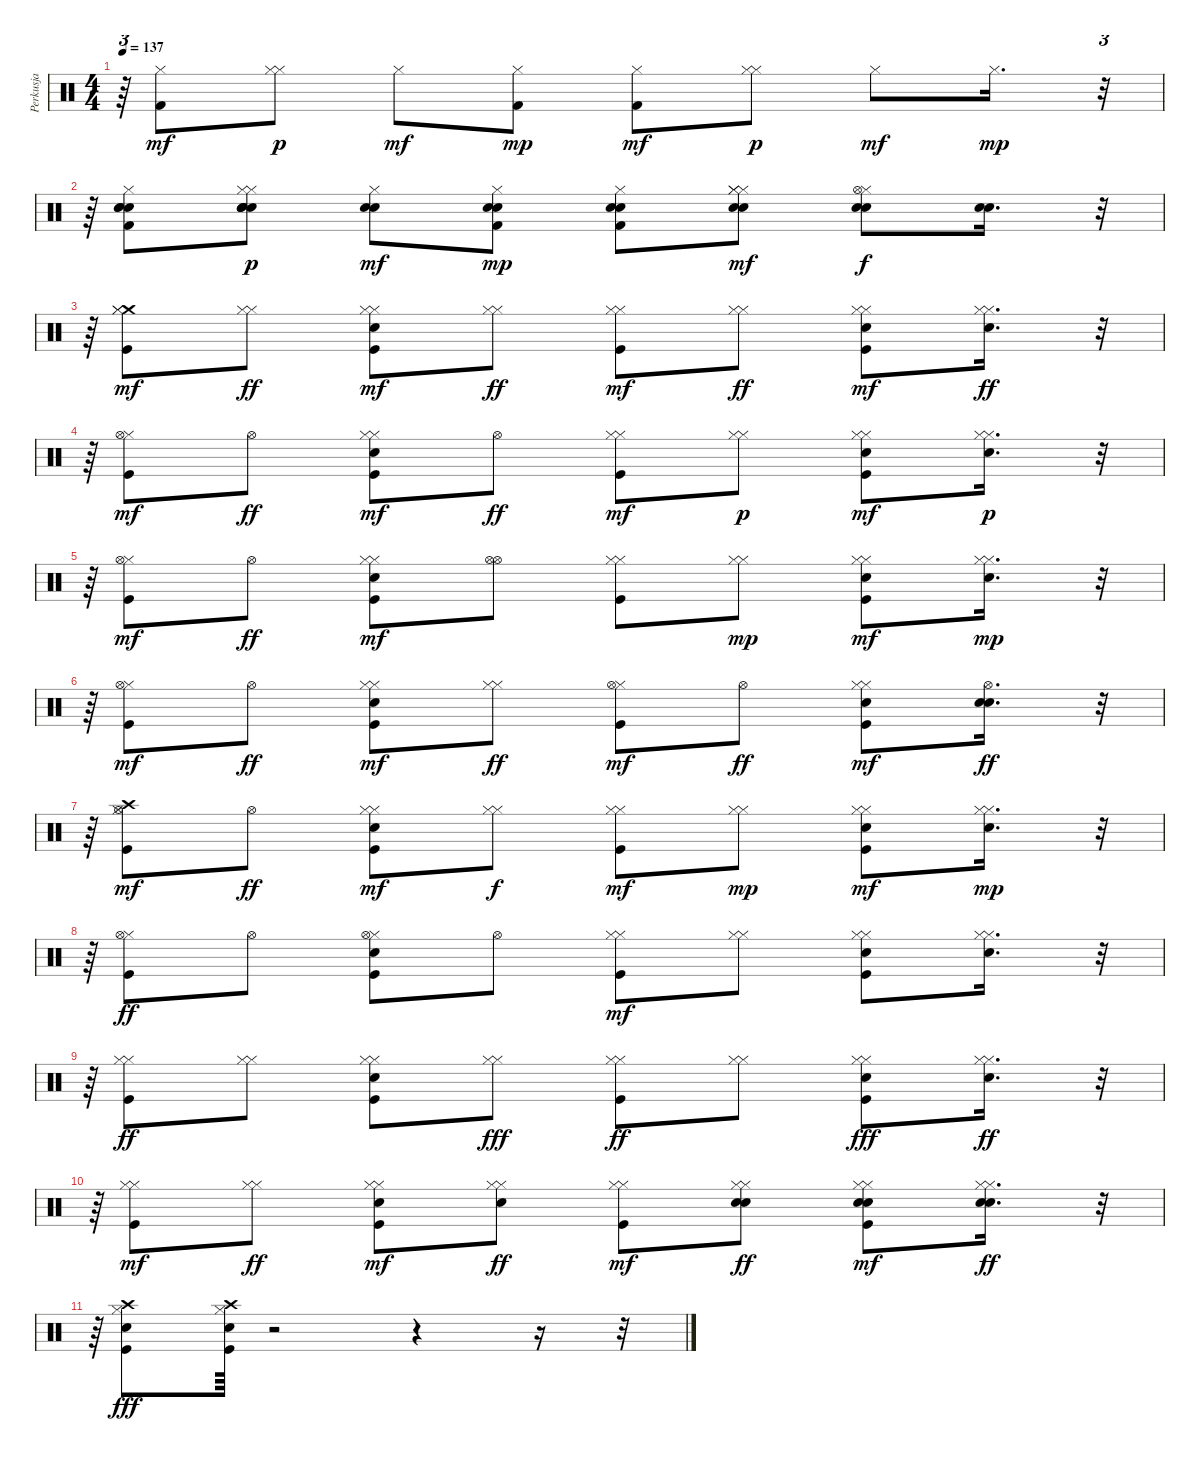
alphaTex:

\track ("Perkusja" "Perkusja") {instrument percussion}
\staff {score}
\articulation defaults
\ts (4 4)
\tempo 137
\clef neutral
\ks c
r.64{tu (3 2) dy mp} ("Hi-Hat (closed)" "Kick (hit) 2").8{dy mf} ("Hi-Hat (closed)" "Hi-Hat (closed)").8{dy p} "Hi-Hat (closed)".8{dy mf} ("Hi-Hat (closed)" "Kick (hit) 2").8{dy mp} ("Hi-Hat (closed)" "Kick (hit) 2").8{dy mf} ("Hi-Hat (closed)" "Hi-Hat (closed)").8{dy p} "Hi-Hat (closed)".8{dy mf} "Hi-Hat (closed)".16{d dy mp} r.32{tu (3 2)} |
r.64{tu (3 2)} ("Snare (hit) 2" "Hi-Hat (closed)" "Kick (hit) 2" "Snare (hit) 2" "Snare (hit) 2").8 ("Snare (hit) 2" "Snare (hit) 2" "Hi-Hat (closed)" "Snare (hit) 2" "Snare (hit) 2" "Hi-Hat (closed)").8{dy p} ("Snare (hit) 2" "Snare (hit) 2" "Hi-Hat (closed)").8{dy mf} ("Snare (hit) 2" "Hi-Hat (closed)" "Kick (hit) 2" "Snare (hit) 2").8{dy mp} ("Snare (hit) 2" "Hi-Hat (closed)" "Kick (hit) 2" "Snare (hit) 2").8 ("Snare (hit) 2" "Hi-Hat (closed)" "Hi-Hat (closed)" "Snare (hit) 2" "Hi-Hat (closed)").8{dy mf} ("Hi-Hat (closed)" "Electric Snare (hit)" "Hi-Hat (open)" "Electric Snare (hit)").8{dy f} ("Electric Snare (hit)" "Electric Snare (hit)").16{d} r.32{tu (3 2)} |
r.64{tu (3 2)} ("Crash medium (hit)" "Kick (hit)" "Hi-Hat (closed)" "Hi-Hat (closed)").8{dy mf} ("Hi-Hat (closed)" "Hi-Hat (closed)").8{dy ff} ("Electric Snare (hit)" "Kick (hit)" "Hi-Hat (closed)" "Hi-Hat (closed)").8{dy mf} ("Hi-Hat (closed)" "Hi-Hat (closed)").8{dy ff} ("Kick (hit)" "Hi-Hat (closed)" "Hi-Hat (closed)").8{dy mf} ("Hi-Hat (closed)" "Hi-Hat (closed)").8{dy ff} ("Electric Snare (hit)" "Kick (hit)" "Hi-Hat (closed)" "Hi-Hat (closed)").8{dy mf} ("Hi-Hat (closed)" "Electric Snare (hit)" "Hi-Hat (closed)").16{d dy ff} r.32{tu (3 2)} |
r.64{tu (3 2)} ("Kick (hit)" "Hi-Hat (closed)" "Hi-Hat (open)").8{dy mf} "Hi-Hat (open)".8{dy ff} ("Electric Snare (hit)" "Kick (hit)" "Hi-Hat (closed)" "Hi-Hat (closed)").8{dy mf} "Hi-Hat (open)".8{dy ff} ("Kick (hit)" "Hi-Hat (closed)" "Hi-Hat (closed)").8{dy mf} ("Hi-Hat (closed)" "Hi-Hat (closed)").8{dy p} ("Electric Snare (hit)" "Kick (hit)" "Hi-Hat (closed)" "Hi-Hat (closed)").8{dy mf} ("Hi-Hat (closed)" "Electric Snare (hit)" "Hi-Hat (closed)").16{d dy p} r.32{tu (3 2)} |
r.64{tu (3 2)} ("Kick (hit)" "Hi-Hat (closed)" "Hi-Hat (open)").8{dy mf} "Hi-Hat (open)".8{dy ff} ("Electric Snare (hit)" "Kick (hit)" "Hi-Hat (closed)" "Hi-Hat (closed)").8{dy mf} ("Hi-Hat (open)" "Hi-Hat (open)").8 ("Kick (hit)" "Hi-Hat (closed)" "Hi-Hat (closed)").8 ("Hi-Hat (closed)" "Hi-Hat (closed)").8{dy mp} ("Electric Snare (hit)" "Kick (hit)" "Hi-Hat (closed)" "Hi-Hat (closed)").8{dy mf} ("Electric Snare (hit)" "Hi-Hat (closed)" "Hi-Hat (closed)").16{d dy mp} r.32{tu (3 2)} |
r.64{tu (3 2)} ("Kick (hit)" "Hi-Hat (closed)" "Hi-Hat (open)").8{dy mf} "Hi-Hat (open)".8{dy ff} ("Electric Snare (hit)" "Kick (hit)" "Hi-Hat (closed)" "Hi-Hat (closed)").8{dy mf} ("Hi-Hat (closed)" "Hi-Hat (closed)").8{dy ff} ("Kick (hit)" "Hi-Hat (closed)" "Hi-Hat (open)").8{dy mf} "Hi-Hat (open)".8{dy ff} ("Electric Snare (hit)" "Kick (hit)" "Hi-Hat (closed)" "Hi-Hat (closed)").8{dy mf} ("Electric Snare (hit)" "Hi-Hat (open)" "Electric Snare (hit)").16{d dy ff} r.32{tu (3 2)} |
r.64{tu (3 2)} ("Crash high (hit)" "Kick (hit)" "Hi-Hat (closed)" "Hi-Hat (open)").8{dy mf} "Hi-Hat (open)".8{dy ff} ("Electric Snare (hit)" "Kick (hit)" "Hi-Hat (closed)" "Hi-Hat (closed)").8{dy mf} ("Hi-Hat (closed)" "Hi-Hat (closed)").8{dy f} ("Kick (hit)" "Hi-Hat (closed)" "Hi-Hat (closed)").8{dy mf} ("Hi-Hat (closed)" "Hi-Hat (closed)").8{dy mp} ("Electric Snare (hit)" "Kick (hit)" "Hi-Hat (closed)" "Hi-Hat (closed)").8{dy mf} ("Hi-Hat (closed)" "Electric Snare (hit)" "Hi-Hat (closed)").16{d dy mp} r.32{tu (3 2)} |
r.64{tu (3 2)} ("Kick (hit)" "Hi-Hat (closed)" "Hi-Hat (open)").8{dy ff} "Hi-Hat (open)".8 ("Electric Snare (hit)" "Kick (hit)" "Hi-Hat (closed)" "Hi-Hat (open)").8 "Hi-Hat (open)".8 ("Kick (hit)" "Hi-Hat (closed)" "Hi-Hat (closed)").8{dy mf} ("Hi-Hat (closed)" "Hi-Hat (closed)").8 ("Electric Snare (hit)" "Kick (hit)" "Hi-Hat (closed)" "Hi-Hat (closed)").8 ("Hi-Hat (closed)" "Electric Snare (hit)" "Hi-Hat (closed)").16{d} r.32{tu (3 2)} |
r.64{tu (3 2)} ("Kick (hit)" "Hi-Hat (closed)" "Hi-Hat (closed)").8{dy ff} ("Hi-Hat (closed)" "Hi-Hat (closed)").8 ("Electric Snare (hit)" "Kick (hit)" "Hi-Hat (closed)" "Hi-Hat (closed)").8 ("Hi-Hat (closed)" "Hi-Hat (closed)").8{dy fff} ("Kick (hit)" "Hi-Hat (closed)" "Hi-Hat (closed)").8{dy ff} ("Hi-Hat (closed)" "Hi-Hat (closed)").8 ("Electric Snare (hit)" "Kick (hit)" "Hi-Hat (closed)" "Hi-Hat (closed)").8{dy fff} ("Hi-Hat (closed)" "Electric Snare (hit)" "Hi-Hat (closed)").16{d dy ff} r.32{tu (3 2)} |
r.64{tu (3 2)} ("Kick (hit)" "Hi-Hat (closed)" "Hi-Hat (closed)").8{dy mf} ("Hi-Hat (closed)" "Hi-Hat (closed)").8{dy ff} ("Electric Snare (hit)" "Kick (hit)" "Hi-Hat (closed)" "Hi-Hat (closed)").8{dy mf} ("Electric Snare (hit)" "Hi-Hat (closed)" "Hi-Hat (closed)").8{dy ff} ("Kick (hit)" "Hi-Hat (closed)" "Hi-Hat (closed)").8{dy mf} ("Hi-Hat (closed)" "Electric Snare (hit)" "Hi-Hat (closed)" "Electric Snare (hit)").8{dy ff} ("Electric Snare (hit)" "Kick (hit)" "Hi-Hat (closed)" "Electric Snare (hit)" "Hi-Hat (closed)").8{dy mf} ("Electric Snare (hit)" "Hi-Hat (closed)" "Electric Snare (hit)" "Hi-Hat (closed)").16{d dy ff} r.32{tu (3 2)} |
r.64{tu (3 2)} ("Crash high (hit)" "Electric Snare (hit)" "Hi-Hat (closed)" "Kick (hit)").8{dy fff} ("Crash high (hit)" "Electric Snare (hit)" "Kick (hit)" "Hi-Hat (closed)").64 r.2 r.4 r.16 r.32
